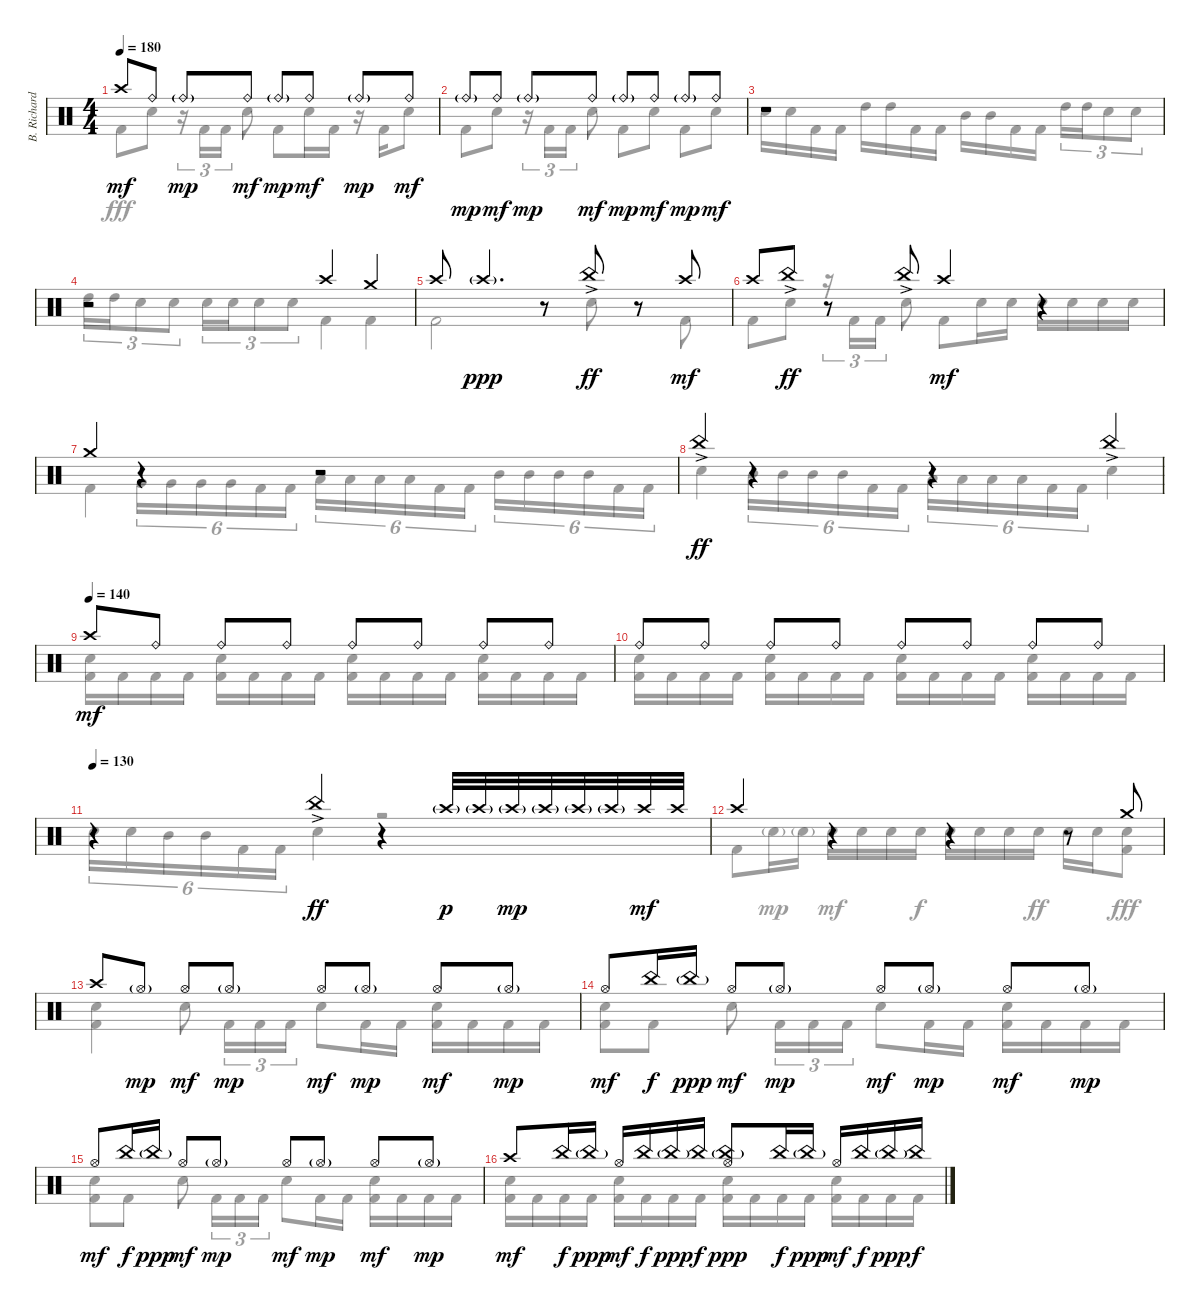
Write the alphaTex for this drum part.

\track ("B. Richardson Drums" "B. Richard") {instrument percussion}
\staff {score}
\articulation defaults
\voice
\ts (4 4)
\tempo 180
\clef neutral
\ks c "Crash high (hit)".8{dy mf} "Ride (bell)".8 "Ride (bell)"{g}.8{dy mp} "Ride (bell)".8{dy mf} "Ride (bell)"{g}.8{dy mp} "Ride (bell)".8{dy mf} "Ride (bell)"{g}.8{dy mp} "Ride (bell)".8{dy mf}
|
"Ride (bell)"{g}.8{dy mp} "Ride (bell)".8{dy mf} "Ride (bell)"{g}.8{dy mp} "Ride (bell)".8{dy mf} "Ride (bell)"{g}.8{dy mp} "Ride (bell)".8{dy mf} "Ride (bell)"{g}.8{dy mp} "Ride (bell)".8{dy mf} |
r.1 |
r.2 "Crash high (hit)".4 "Crash medium (hit)".4 |
"Crash high (hit)".8 "Crash high (hit)"{g}.4{d dy ppp} r.8 "China (hit)"{ac}.8{dy ff} r.8 "Crash high (hit)".8{dy mf} |
"Crash high (hit)".8 "China (hit)"{ac}.8{dy ff} r.8 "China (hit)"{ac}.8 "Crash high (hit)".4{dy mf} r.4 |
"Crash medium (hit)".4 r.4 r.2 |
"China (hit)"{ac}.4{dy ff} r.4 r.4 "China (hit)"{ac}.4 |
\tempo (140)
"Crash high (hit)".8{dy mf} "Ride (bell)".8 "Ride (bell)".8 "Ride (bell)".8 "Ride (bell)".8 "Ride (bell)".8 "Ride (bell)".8 "Ride (bell)".8 |
"Ride (bell)".8 "Ride (bell)".8 "Ride (bell)".8 "Ride (bell)".8 "Ride (bell)".8 "Ride (bell)".8 "Ride (bell)".8 "Ride (bell)".8 |
\tempo 130
r.4 "China (hit)"{ac}.4{dy ff} r.4 "Crash high (hit)"{g}.32{dy p} "Crash high (hit)"{g}.32 "Crash high (hit)"{g}.32{dy mp} "Crash high (hit)"{g}.32 "Crash high (hit)"{g}.32 "Crash high (hit)"{g}.32 "Crash high (hit)".32{dy mf} "Crash high (hit)".32 |
"Crash high (hit)".4 r.4 r.4 r.8 "Crash medium (hit)".8 |
"Crash high (hit)".8 "Hi-Hat (open)"{g}.8{dy mp} "Hi-Hat (open)".8{dy mf} "Hi-Hat (open)"{g}.8{dy mp} "Hi-Hat (open)".8{dy mf} "Hi-Hat (open)"{g}.8{dy mp} "Hi-Hat (open)".8{dy mf} "Hi-Hat (open)"{g}.8{dy mp} |
"Hi-Hat (open)".8{dy mf} "China (hit)".16{dy f} "China (hit)"{g}.16{dy ppp} "Hi-Hat (open)".8{dy mf} "Hi-Hat (open)"{g}.8{dy mp} "Hi-Hat (open)".8{dy mf} "Hi-Hat (open)"{g}.8{dy mp} "Hi-Hat (open)".8{dy mf} "Hi-Hat (open)"{g}.8{dy mp} |
"Hi-Hat (open)".8{dy mf} "China (hit)".16{dy f} "China (hit)"{g}.16{dy ppp} "Hi-Hat (open)".8{dy mf} "Hi-Hat (open)"{g}.8{dy mp} "Hi-Hat (open)".8{dy mf} "Hi-Hat (open)"{g}.8{dy mp} "Hi-Hat (open)".8{dy mf} "Hi-Hat (open)"{g}.8{dy mp} |
"Crash high (hit)".8{dy mf} "China (hit)".16{dy f} "China (hit)"{g}.16{dy ppp} "Hi-Hat (open)".16{dy mf} "China (hit)".16{dy f} "China (hit)"{g}.16{dy ppp} "China (hit)".16{dy f} ("Hi-Hat (open)" "China (hit)"{g}).8{dy ppp} "China (hit)".16{dy f} "China (hit)"{g}.16{dy ppp} "Hi-Hat (open)".16{dy mf} "China (hit)".16{dy f} "China (hit)"{g}.16{dy ppp} "China (hit)".16{dy f}
\voice
\clef neutral
\ottava regular
\simile none
\ks c "Kick (hit) 2".8{dy fff} "Electric Snare (hit)".8
r.16{tu (3 2)} "Kick (hit) 2".16{tu (3 2)} "Kick (hit) 2".16{tu (3 2)} "Electric Snare (hit)".8 "Kick (hit) 2".8 "Electric Snare (hit)".16 "Kick (hit) 2".16 r.16 "Kick (hit) 2".16 "Electric Snare (hit)".8 |
"Kick (hit) 2".8 "Electric Snare (hit)".8 r.16{tu (3 2)} "Kick (hit) 2".16{tu (3 2)} "Kick (hit) 2".16{tu (3 2)} "Electric Snare (hit)".8 "Kick (hit) 2".8 "Electric Snare (hit)".8 "Kick (hit) 2".8 "Electric Snare (hit)".8 |
"Electric Snare (hit)".16 "Electric Snare (hit)".16 "Kick (hit) 2".16 "Kick (hit) 2".16 "High Tom (hit)".16 "High Tom (hit)".16 "Kick (hit) 2".16 "Kick (hit) 2".16 "Mid Tom (hit)".16 "Mid Tom (hit)".16 "Kick (hit) 2".16 "Kick (hit) 2".16 "High Tom (hit)".16{tu (3 2)} "High Tom (hit)".16{tu (3 2)} "Electric Snare (hit)".8{tu (3 2)} "Electric Snare (hit)".8{tu (3 2)} |
"High Tom (hit)".16{tu (3 2)} "High Tom (hit)".16{tu (3 2)} "Electric Snare (hit)".8{tu (3 2)} "Electric Snare (hit)".8{tu (3 2)} "Electric Snare (hit)".16{tu (3 2)} "Electric Snare (hit)".16{tu (3 2)} "Electric Snare (hit)".8{tu (3 2)} "Electric Snare (hit)".8{tu (3 2)} "Kick (hit) 2".4 "Kick (hit) 2".4 |
"Kick (hit) 2".2 r.8 "Electric Snare (hit)".8 r.8 "Kick (hit) 2".8 |
"Kick (hit) 2".8 "Electric Snare (hit)".8 r.16{tu (3 2)} "Kick (hit) 2".16{tu (3 2)} "Kick (hit) 2".16{tu (3 2)} "Electric Snare (hit)".8 "Kick (hit) 2".8 "Electric Snare (hit)".16 "Electric Snare (hit)".16 "Electric Snare (hit)".16 "Electric Snare (hit)".16 "Electric Snare (hit)".16 "Electric Snare (hit)".16 |
"Kick (hit) 2".4 "Very Low Tom (hit)".16{tu (6 4)} "Very Low Tom (hit)".16{tu (6 4)} "Very Low Tom (hit)".16{tu (6 4)} "Very Low Tom (hit)".16{tu (6 4)} "Kick (hit) 2".16{tu (6 4)} "Kick (hit) 2".16{tu (6 4)} "Low Tom (hit)".16{tu (6 4)} "Low Tom (hit)".16{tu (6 4)} "Low Tom (hit)".16{tu (6 4)} "Low Tom (hit)".16{tu (6 4)} "Kick (hit) 2".16{tu (6 4)} "Kick (hit) 2".16{tu (6 4)} "Mid Tom (hit)".16{tu (6 4)} "Mid Tom (hit)".16{tu (6 4)} "Mid Tom (hit)".16{tu (6 4)} "Mid Tom (hit)".16{tu (6 4)} "Kick (hit) 2".16{tu (6 4)} "Kick (hit) 2".16{tu (6 4)} |
"Electric Snare (hit)".4 "Mid Tom (hit)".16{tu (6 4)} "Mid Tom (hit)".16{tu (6 4)} "Mid Tom (hit)".16{tu (6 4)} "Mid Tom (hit)".16{tu (6 4)} "Kick (hit) 2".16{tu (6 4)} "Kick (hit) 2".16{tu (6 4)} "Low Tom (hit)".16{tu (6 4)} "Low Tom (hit)".16{tu (6 4)} "Low Tom (hit)".16{tu (6 4)} "Low Tom (hit)".16{tu (6 4)} "Kick (hit) 2".16{tu (6 4)} "Kick (hit) 2".16{tu (6 4)} "Electric Snare (hit)".4 |
("Electric Snare (hit)" "Kick (hit) 2").16 "Kick (hit) 2".16 "Kick (hit) 2".16 "Kick (hit) 2".16 ("Electric Snare (hit)" "Kick (hit) 2").16 "Kick (hit) 2".16 "Kick (hit) 2".16 "Kick (hit) 2".16 ("Electric Snare (hit)" "Kick (hit) 2").16 "Kick (hit) 2".16 "Kick (hit) 2".16 "Kick (hit) 2".16 ("Electric Snare (hit)" "Kick (hit) 2").16 "Kick (hit) 2".16 "Kick (hit) 2".16 "Kick (hit) 2".16 |
("Electric Snare (hit)" "Kick (hit) 2").16 "Kick (hit) 2".16 "Kick (hit) 2".16 "Kick (hit) 2".16 ("Electric Snare (hit)" "Kick (hit) 2").16 "Kick (hit) 2".16 "Kick (hit) 2".16 "Kick (hit) 2".16 ("Electric Snare (hit)" "Kick (hit) 2").16 "Kick (hit) 2".16 "Kick (hit) 2".16 "Kick (hit) 2".16 ("Electric Snare (hit)" "Kick (hit) 2").16 "Kick (hit) 2".16 "Kick (hit) 2".16 "Kick (hit) 2".16 |
"Electric Snare (hit)".16{tu (6 4)} "Electric Snare (hit)".16{tu (6 4)} "Mid Tom (hit)".16{tu (6 4)} "Mid Tom (hit)".16{tu (6 4)} "Kick (hit) 2".16{tu (6 4)} "Kick (hit) 2".16{tu (6 4)} "Electric Snare (hit)".4 r.2 |
"Kick (hit) 2".8 "Electric Snare (hit)"{g}.16{dy mp} "Electric Snare (hit)"{g}.16 "Electric Snare (hit)".16{dy mf} "Electric Snare (hit)".16 "Electric Snare (hit)".16 "Electric Snare (hit)".16{dy f} "Electric Snare (hit)".16 "Electric Snare (hit)".16 "Electric Snare (hit)".16 "Electric Snare (hit)".16{dy ff} "Electric Snare (hit)".16 "Electric Snare (hit)".16 ("Electric Snare (hit)" "Kick (hit) 2").8{dy fff} |
("Electric Snare (hit)" "Kick (hit) 2").4 "Electric Snare (hit)".8 "Kick (hit) 2".16{tu (3 2)} "Kick (hit) 2".16{tu (3 2)} "Kick (hit) 2".16{tu (3 2)} "Electric Snare (hit)".8 "Kick (hit) 2".16 "Kick (hit) 2".16 ("Electric Snare (hit)" "Kick (hit) 2").16 "Kick (hit) 2".16 "Kick (hit) 2".16 "Kick (hit) 2".16 |
("Electric Snare (hit)" "Kick (hit) 2").8 "Kick (hit) 2".8 "Electric Snare (hit)".8 "Kick (hit) 2".16{tu (3 2)} "Kick (hit) 2".16{tu (3 2)} "Kick (hit) 2".16{tu (3 2)} "Electric Snare (hit)".8 "Kick (hit) 2".16 "Kick (hit) 2".16 ("Electric Snare (hit)" "Kick (hit) 2").16 "Kick (hit) 2".16 "Kick (hit) 2".16 "Kick (hit) 2".16 |
("Electric Snare (hit)" "Kick (hit) 2").8 "Kick (hit) 2".8 "Electric Snare (hit)".8 "Kick (hit) 2".16{tu (3 2)} "Kick (hit) 2".16{tu (3 2)} "Kick (hit) 2".16{tu (3 2)} "Electric Snare (hit)".8 "Kick (hit) 2".16 "Kick (hit) 2".16 ("Electric Snare (hit)" "Kick (hit) 2").16 "Kick (hit) 2".16 "Kick (hit) 2".16 "Kick (hit) 2".16 |
("Electric Snare (hit)" "Kick (hit) 2").16 "Kick (hit) 2".16 "Kick (hit) 2".16 "Kick (hit) 2".16 ("Electric Snare (hit)" "Kick (hit) 2").16 "Kick (hit) 2".16 "Kick (hit) 2".16 "Kick (hit) 2".16 ("Electric Snare (hit)" "Kick (hit) 2").16 "Kick (hit) 2".16 "Kick (hit) 2".16 "Kick (hit) 2".16 ("Electric Snare (hit)" "Kick (hit) 2").16 "Kick (hit) 2".16 "Kick (hit) 2".16 "Kick (hit) 2".16
